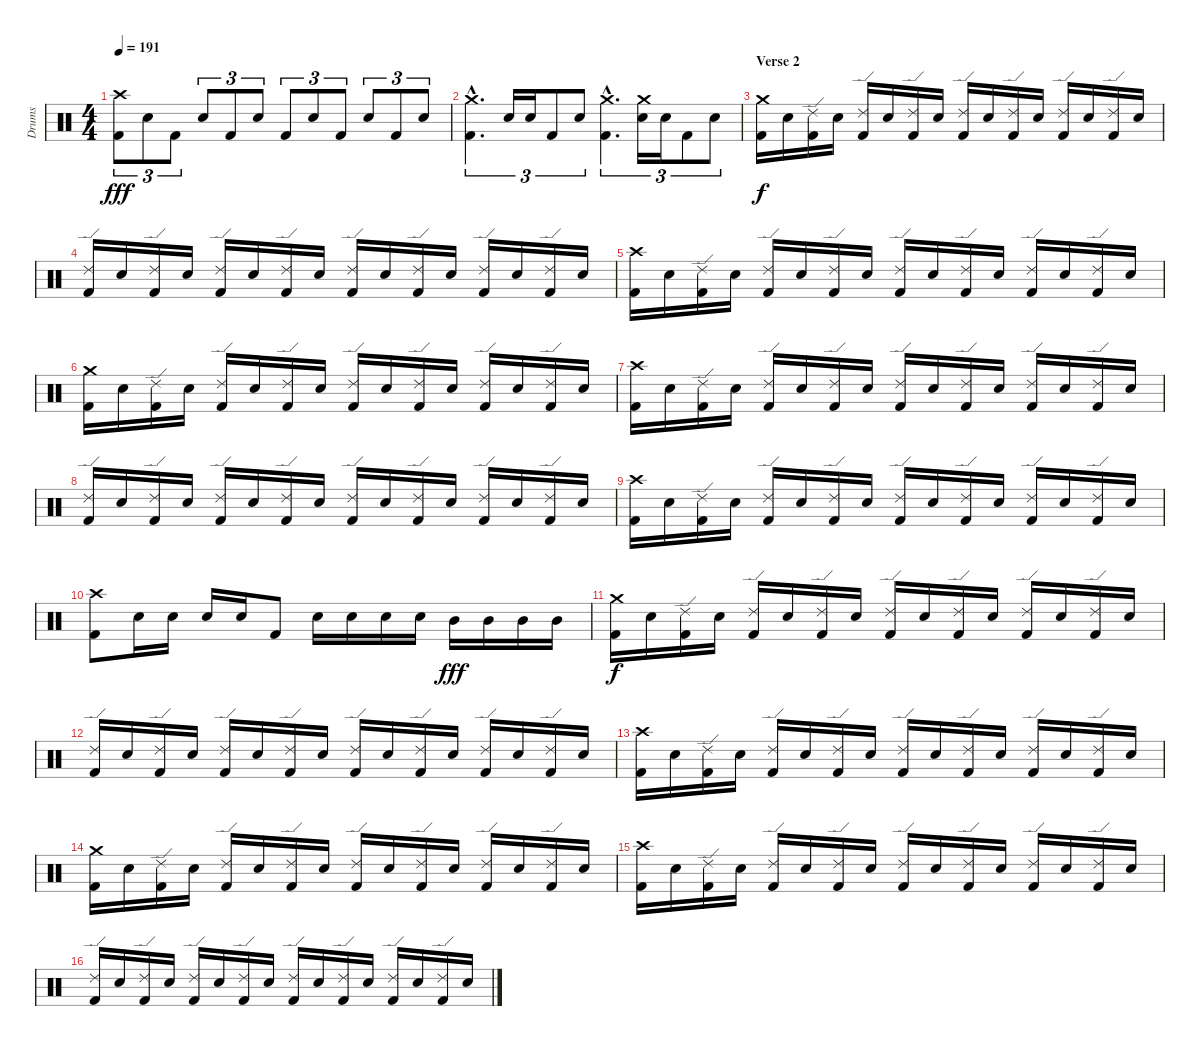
\track ("Drums" "Drums") {instrument percussion}
\staff {score}
\articulation defaults
\ts (4 4)
\tempo 191
\clef neutral
\ks c
("Crash high (hit)" "Kick (hit) 2").8{tu (3 2) dy fff} "Electric Snare (hit)".8{tu (3 2)} "Kick (hit) 2".8{tu (3 2)} "Electric Snare (hit)".8{tu (3 2)} "Kick (hit) 2".8{tu (3 2)} "Electric Snare (hit)".8{tu (3 2)} "Kick (hit) 2".8{tu (3 2)} "Electric Snare (hit)".8{tu (3 2)} "Kick (hit) 2".8{tu (3 2)} "Electric Snare (hit)".8{tu (3 2)} "Kick (hit) 2".8{tu (3 2)} "Electric Snare (hit)".8{tu (3 2)} |
("Crash medium (hit)"{hac} "Kick (hit) 2"{hac}).4{d tu (3 2)} "Electric Snare (hit)".16{tu (3 2)} "Electric Snare (hit)".16{tu (3 2)} "Kick (hit) 2".8{tu (3 2)} "Electric Snare (hit)".8{tu (3 2)} ("Crash medium (hit)"{hac} "Kick (hit) 2"{hac}).4{d tu (3 2)} ("Crash medium (hit)" "Electric Snare (hit)").16{tu (3 2)} "Electric Snare (hit)".16{tu (3 2)} "Kick (hit) 2".8{tu (3 2)} "Electric Snare (hit)".8{tu (3 2)} |
\section ("" "Verse 2")
("Crash medium (hit)" "Kick (hit) 2").16{dy f} "Electric Snare (hit)".16 ("Ride (edge) 2" "Kick (hit) 2").16 "Electric Snare (hit)".16 ("Ride (edge) 2" "Kick (hit) 2").16 "Electric Snare (hit)".16 ("Ride (edge) 2" "Kick (hit) 2").16 "Electric Snare (hit)".16 ("Ride (edge) 2" "Kick (hit) 2").16 "Electric Snare (hit)".16 ("Ride (edge) 2" "Kick (hit) 2").16 "Electric Snare (hit)".16 ("Ride (edge) 2" "Kick (hit) 2").16 "Electric Snare (hit)".16 ("Ride (edge) 2" "Kick (hit) 2").16 "Electric Snare (hit)".16 |
("Ride (edge) 2" "Kick (hit) 2").16 "Electric Snare (hit)".16 ("Ride (edge) 2" "Kick (hit) 2").16 "Electric Snare (hit)".16 ("Ride (edge) 2" "Kick (hit) 2").16 "Electric Snare (hit)".16 ("Ride (edge) 2" "Kick (hit) 2").16 "Electric Snare (hit)".16 ("Ride (edge) 2" "Kick (hit) 2").16 "Electric Snare (hit)".16 ("Ride (edge) 2" "Kick (hit) 2").16 "Electric Snare (hit)".16 ("Ride (edge) 2" "Kick (hit) 2").16 "Electric Snare (hit)".16 ("Ride (edge) 2" "Kick (hit) 2").16 "Electric Snare (hit)".16 |
("Crash high (hit)" "Kick (hit) 2").16 "Electric Snare (hit)".16 ("Ride (edge) 2" "Kick (hit) 2").16 "Electric Snare (hit)".16 ("Ride (edge) 2" "Kick (hit) 2").16 "Electric Snare (hit)".16 ("Ride (edge) 2" "Kick (hit) 2").16 "Electric Snare (hit)".16 ("Ride (edge) 2" "Kick (hit) 2").16 "Electric Snare (hit)".16 ("Ride (edge) 2" "Kick (hit) 2").16 "Electric Snare (hit)".16 ("Ride (edge) 2" "Kick (hit) 2").16 "Electric Snare (hit)".16 ("Ride (edge) 2" "Kick (hit) 2").16 "Electric Snare (hit)".16 |
("Crash medium (hit)" "Kick (hit) 2").16 "Electric Snare (hit)".16 ("Ride (edge) 2" "Kick (hit) 2").16 "Electric Snare (hit)".16 ("Ride (edge) 2" "Kick (hit) 2").16 "Electric Snare (hit)".16 ("Ride (edge) 2" "Kick (hit) 2").16 "Electric Snare (hit)".16 ("Ride (edge) 2" "Kick (hit) 2").16 "Electric Snare (hit)".16 ("Ride (edge) 2" "Kick (hit) 2").16 "Electric Snare (hit)".16 ("Ride (edge) 2" "Kick (hit) 2").16 "Electric Snare (hit)".16 ("Ride (edge) 2" "Kick (hit) 2").16 "Electric Snare (hit)".16 |
("Crash high (hit)" "Kick (hit) 2").16 "Electric Snare (hit)".16 ("Ride (edge) 2" "Kick (hit) 2").16 "Electric Snare (hit)".16 ("Ride (edge) 2" "Kick (hit) 2").16 "Electric Snare (hit)".16 ("Ride (edge) 2" "Kick (hit) 2").16 "Electric Snare (hit)".16 ("Ride (edge) 2" "Kick (hit) 2").16 "Electric Snare (hit)".16 ("Ride (edge) 2" "Kick (hit) 2").16 "Electric Snare (hit)".16 ("Ride (edge) 2" "Kick (hit) 2").16 "Electric Snare (hit)".16 ("Ride (edge) 2" "Kick (hit) 2").16 "Electric Snare (hit)".16 |
("Ride (edge) 2" "Kick (hit) 2").16 "Electric Snare (hit)".16 ("Ride (edge) 2" "Kick (hit) 2").16 "Electric Snare (hit)".16 ("Ride (edge) 2" "Kick (hit) 2").16 "Electric Snare (hit)".16 ("Ride (edge) 2" "Kick (hit) 2").16 "Electric Snare (hit)".16 ("Ride (edge) 2" "Kick (hit) 2").16 "Electric Snare (hit)".16 ("Ride (edge) 2" "Kick (hit) 2").16 "Electric Snare (hit)".16 ("Ride (edge) 2" "Kick (hit) 2").16 "Electric Snare (hit)".16 ("Ride (edge) 2" "Kick (hit) 2").16 "Electric Snare (hit)".16 |
("Crash high (hit)" "Kick (hit) 2").16 "Electric Snare (hit)".16 ("Ride (edge) 2" "Kick (hit) 2").16 "Electric Snare (hit)".16 ("Ride (edge) 2" "Kick (hit) 2").16 "Electric Snare (hit)".16 ("Ride (edge) 2" "Kick (hit) 2").16 "Electric Snare (hit)".16 ("Ride (edge) 2" "Kick (hit) 2").16 "Electric Snare (hit)".16 ("Ride (edge) 2" "Kick (hit) 2").16 "Electric Snare (hit)".16 ("Ride (edge) 2" "Kick (hit) 2").16 "Electric Snare (hit)".16 ("Ride (edge) 2" "Kick (hit) 2").16 "Electric Snare (hit)".16 |
("Crash high (hit)" "Kick (hit) 2").8 "Electric Snare (hit)".16 "Electric Snare (hit)".16 "Electric Snare (hit)".16 "Electric Snare (hit)".16 "Kick (hit) 2".8 "Electric Snare (hit)".16 "Electric Snare (hit)".16 "Electric Snare (hit)".16 "Electric Snare (hit)".16 "Mid Tom (hit)".16{dy fff} "Mid Tom (hit)".16 "Mid Tom (hit)".16 "Mid Tom (hit)".16 |
("Crash medium (hit)" "Kick (hit) 2").16{dy f} "Electric Snare (hit)".16 ("Ride (edge) 2" "Kick (hit) 2").16 "Electric Snare (hit)".16 ("Ride (edge) 2" "Kick (hit) 2").16 "Electric Snare (hit)".16 ("Ride (edge) 2" "Kick (hit) 2").16 "Electric Snare (hit)".16 ("Ride (edge) 2" "Kick (hit) 2").16 "Electric Snare (hit)".16 ("Ride (edge) 2" "Kick (hit) 2").16 "Electric Snare (hit)".16 ("Ride (edge) 2" "Kick (hit) 2").16 "Electric Snare (hit)".16 ("Ride (edge) 2" "Kick (hit) 2").16 "Electric Snare (hit)".16 |
("Ride (edge) 2" "Kick (hit) 2").16 "Electric Snare (hit)".16 ("Ride (edge) 2" "Kick (hit) 2").16 "Electric Snare (hit)".16 ("Ride (edge) 2" "Kick (hit) 2").16 "Electric Snare (hit)".16 ("Ride (edge) 2" "Kick (hit) 2").16 "Electric Snare (hit)".16 ("Ride (edge) 2" "Kick (hit) 2").16 "Electric Snare (hit)".16 ("Ride (edge) 2" "Kick (hit) 2").16 "Electric Snare (hit)".16 ("Ride (edge) 2" "Kick (hit) 2").16 "Electric Snare (hit)".16 ("Ride (edge) 2" "Kick (hit) 2").16 "Electric Snare (hit)".16 |
("Crash high (hit)" "Kick (hit) 2").16 "Electric Snare (hit)".16 ("Ride (edge) 2" "Kick (hit) 2").16 "Electric Snare (hit)".16 ("Ride (edge) 2" "Kick (hit) 2").16 "Electric Snare (hit)".16 ("Ride (edge) 2" "Kick (hit) 2").16 "Electric Snare (hit)".16 ("Ride (edge) 2" "Kick (hit) 2").16 "Electric Snare (hit)".16 ("Ride (edge) 2" "Kick (hit) 2").16 "Electric Snare (hit)".16 ("Ride (edge) 2" "Kick (hit) 2").16 "Electric Snare (hit)".16 ("Ride (edge) 2" "Kick (hit) 2").16 "Electric Snare (hit)".16 |
("Crash medium (hit)" "Kick (hit) 2").16 "Electric Snare (hit)".16 ("Ride (edge) 2" "Kick (hit) 2").16 "Electric Snare (hit)".16 ("Ride (edge) 2" "Kick (hit) 2").16 "Electric Snare (hit)".16 ("Ride (edge) 2" "Kick (hit) 2").16 "Electric Snare (hit)".16 ("Ride (edge) 2" "Kick (hit) 2").16 "Electric Snare (hit)".16 ("Ride (edge) 2" "Kick (hit) 2").16 "Electric Snare (hit)".16 ("Ride (edge) 2" "Kick (hit) 2").16 "Electric Snare (hit)".16 ("Ride (edge) 2" "Kick (hit) 2").16 "Electric Snare (hit)".16 |
("Crash high (hit)" "Kick (hit) 2").16 "Electric Snare (hit)".16 ("Ride (edge) 2" "Kick (hit) 2").16 "Electric Snare (hit)".16 ("Ride (edge) 2" "Kick (hit) 2").16 "Electric Snare (hit)".16 ("Ride (edge) 2" "Kick (hit) 2").16 "Electric Snare (hit)".16 ("Ride (edge) 2" "Kick (hit) 2").16 "Electric Snare (hit)".16 ("Ride (edge) 2" "Kick (hit) 2").16 "Electric Snare (hit)".16 ("Ride (edge) 2" "Kick (hit) 2").16 "Electric Snare (hit)".16 ("Ride (edge) 2" "Kick (hit) 2").16 "Electric Snare (hit)".16 |
("Ride (edge) 2" "Kick (hit) 2").16 "Electric Snare (hit)".16 ("Ride (edge) 2" "Kick (hit) 2").16 "Electric Snare (hit)".16 ("Ride (edge) 2" "Kick (hit) 2").16 "Electric Snare (hit)".16 ("Ride (edge) 2" "Kick (hit) 2").16 "Electric Snare (hit)".16 ("Ride (edge) 2" "Kick (hit) 2").16 "Electric Snare (hit)".16 ("Ride (edge) 2" "Kick (hit) 2").16 "Electric Snare (hit)".16 ("Ride (edge) 2" "Kick (hit) 2").16 "Electric Snare (hit)".16 ("Ride (edge) 2" "Kick (hit) 2").16 "Electric Snare (hit)".16
